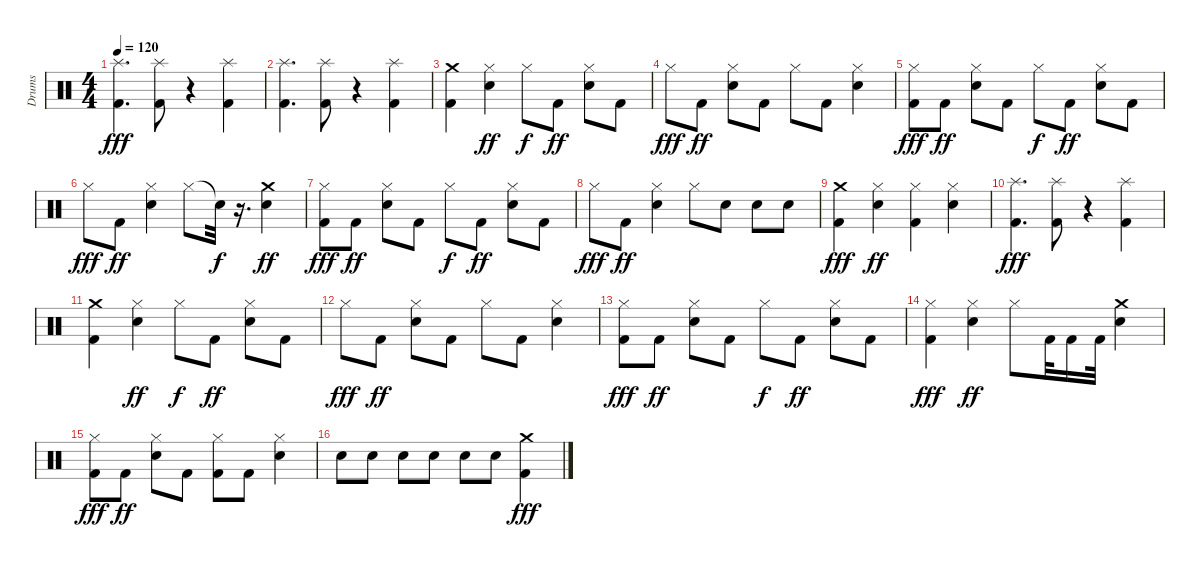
\track ("Drums" "Drums") {instrument percussion}
\staff {score}
\articulation defaults
\ts (4 4)
\tempo 120
\clef neutral
\ks c
("Kick (hit) 2" "Splash (hit)").4{d dy fff} ("Kick (hit) 2" "Splash (hit)").8 r.4 ("Kick (hit) 2" "Splash (hit)").4 |
("Kick (hit) 2" "Splash (hit)").4{d} ("Kick (hit) 2" "Splash (hit)").8 r.4 ("Kick (hit) 2" "Splash (hit)").4 |
("Kick (hit) 2" "Crash medium (hit)").4 ("Hi-Hat (closed)" "Electric Snare (hit)").4{dy ff} "Hi-Hat (closed)".8{dy f} "Kick (hit) 2".8{dy ff} ("Hi-Hat (closed)" "Electric Snare (hit)").8 "Kick (hit) 2".8 |
"Hi-Hat (closed)".8{dy fff} "Kick (hit) 2".8{dy ff} ("Hi-Hat (closed)" "Electric Snare (hit)").8 "Kick (hit) 2".8 "Hi-Hat (closed)".8 "Kick (hit) 2".8 ("Hi-Hat (closed)" "Electric Snare (hit)").4 |
("Kick (hit) 2" "Hi-Hat (closed)").8{dy fff} "Kick (hit) 2".8{dy ff} ("Hi-Hat (closed)" "Electric Snare (hit)").8 "Kick (hit) 2".8 "Hi-Hat (closed)".8{dy f} "Kick (hit) 2".8{dy ff} ("Hi-Hat (closed)" "Electric Snare (hit)").8 "Kick (hit) 2".8 |
"Hi-Hat (closed)".8{dy fff} "Kick (hit) 2".8{dy ff} ("Hi-Hat (closed)" "Electric Snare (hit)").4 "Hi-Hat (closed)".8 "Snare (hit)"{t}.32{dy f} r.16{d} ("Crash medium (hit)" "Electric Snare (hit)").4{dy ff} |
("Kick (hit) 2" "Hi-Hat (closed)").8{dy fff} "Kick (hit) 2".8{dy ff} ("Hi-Hat (closed)" "Electric Snare (hit)").8 "Kick (hit) 2".8 "Hi-Hat (closed)".8{dy f} "Kick (hit) 2".8{dy ff} ("Hi-Hat (closed)" "Electric Snare (hit)").8 "Kick (hit) 2".8 |
"Hi-Hat (closed)".8{dy fff} "Kick (hit) 2".8{dy ff} ("Hi-Hat (closed)" "Electric Snare (hit)").4 "Hi-Hat (closed)".8 "Electric Snare (hit)".8 "Electric Snare (hit)".8 "Electric Snare (hit)".8 |
("Kick (hit) 2" "Crash medium (hit)").4{dy fff} ("Hi-Hat (closed)" "Electric Snare (hit)").4{dy ff} ("Kick (hit) 2" "Hi-Hat (closed)").4 ("Hi-Hat (closed)" "Electric Snare (hit)").4 |
("Kick (hit) 2" "Splash (hit)").4{d dy fff} ("Kick (hit) 2" "Splash (hit)").8 r.4 ("Kick (hit) 2" "Splash (hit)").4 |
("Kick (hit) 2" "Crash medium (hit)").4 ("Hi-Hat (closed)" "Electric Snare (hit)").4{dy ff} "Hi-Hat (closed)".8{dy f} "Kick (hit) 2".8{dy ff} ("Hi-Hat (closed)" "Electric Snare (hit)").8 "Kick (hit) 2".8 |
"Hi-Hat (closed)".8{dy fff} "Kick (hit) 2".8{dy ff} ("Hi-Hat (closed)" "Electric Snare (hit)").8 "Kick (hit) 2".8 "Hi-Hat (closed)".8 "Kick (hit) 2".8 ("Hi-Hat (closed)" "Electric Snare (hit)").4 |
("Kick (hit) 2" "Hi-Hat (closed)").8{dy fff} "Kick (hit) 2".8{dy ff} ("Hi-Hat (closed)" "Electric Snare (hit)").8 "Kick (hit) 2".8 "Hi-Hat (closed)".8{dy f} "Kick (hit) 2".8{dy ff} ("Hi-Hat (closed)" "Electric Snare (hit)").8 "Kick (hit) 2".8 |
("Kick (hit) 2" "Hi-Hat (closed)").4{dy fff} ("Hi-Hat (closed)" "Electric Snare (hit)").4{dy ff} "Hi-Hat (closed)".8 "Kick (hit) 2".32 "Kick (hit) 2".16 "Kick (hit) 2".32 ("Crash medium (hit)" "Electric Snare (hit)").4 |
("Kick (hit) 2" "Hi-Hat (closed)").8{dy fff} "Kick (hit) 2".8{dy ff} ("Hi-Hat (closed)" "Electric Snare (hit)").8 "Kick (hit) 2".8 ("Kick (hit) 2" "Hi-Hat (closed)").8 "Kick (hit) 2".8 ("Hi-Hat (closed)" "Electric Snare (hit)").4 |
"Electric Snare (hit)".8 "Electric Snare (hit)".8 "Electric Snare (hit)".8 "Electric Snare (hit)".8 "Electric Snare (hit)".8 "Electric Snare (hit)".8 ("Kick (hit) 2" "Crash medium (hit)").4{dy fff}
